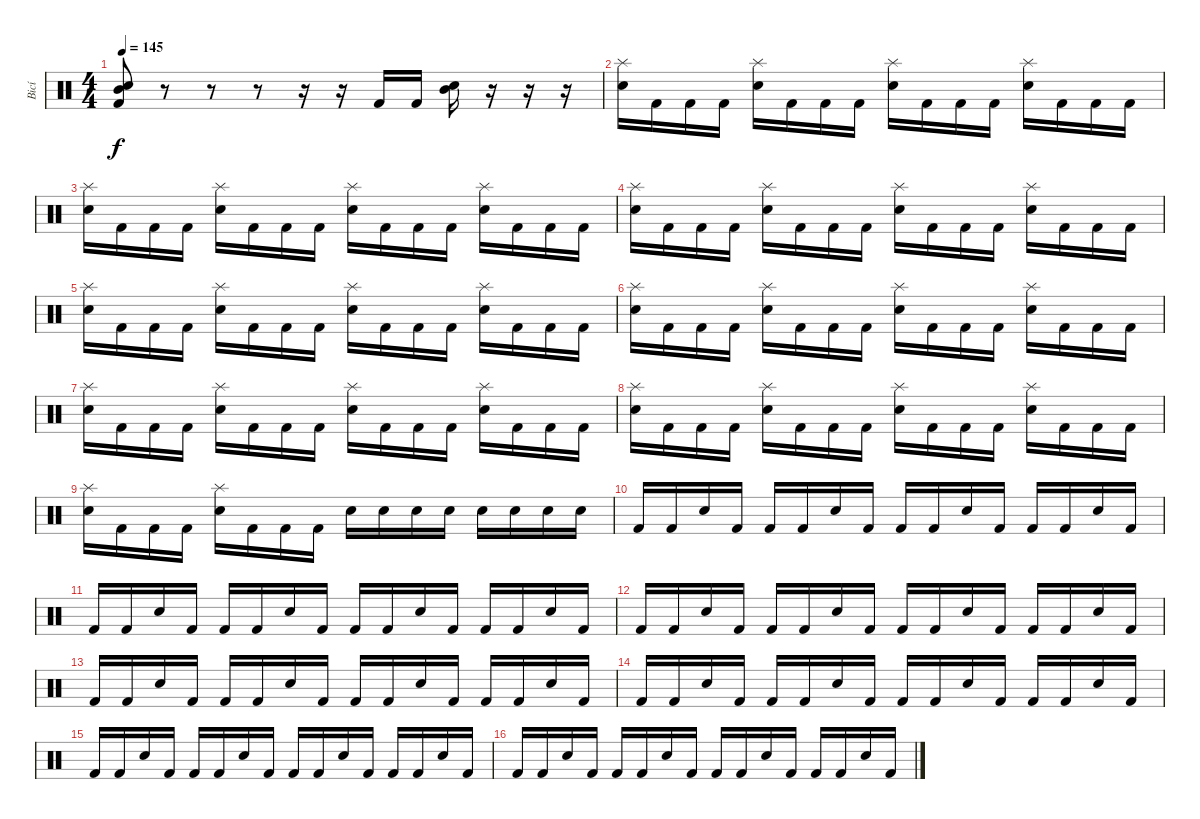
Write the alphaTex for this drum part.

\track ("Bicí" "Bicí") {instrument percussion}
\staff {score}
\articulation defaults
\ts (4 4)
\tempo 145
\clef neutral
\ks c
("Kick (hit) 2" "Electric Snare (hit)" "Mid Tom (hit)").8{dy f} r.8 r.8 r.8 r.16 r.16 "Kick (hit) 2".16 "Kick (hit) 2".16 ("Electric Snare (hit)" "Mid Tom (hit)").16 r.16 r.16 r.16 |
("Electric Snare (hit)" "Splash (hit)").16 "Kick (hit) 2".16 "Kick (hit) 2".16 "Kick (hit) 2".16 ("Electric Snare (hit)" "Splash (hit)").16 "Kick (hit) 2".16 "Kick (hit) 2".16 "Kick (hit) 2".16 ("Electric Snare (hit)" "Splash (hit)").16 "Kick (hit) 2".16 "Kick (hit) 2".16 "Kick (hit) 2".16 ("Electric Snare (hit)" "Splash (hit)").16 "Kick (hit) 2".16 "Kick (hit) 2".16 "Kick (hit) 2".16 |
("Electric Snare (hit)" "Splash (hit)").16 "Kick (hit) 2".16 "Kick (hit) 2".16 "Kick (hit) 2".16 ("Electric Snare (hit)" "Splash (hit)").16 "Kick (hit) 2".16 "Kick (hit) 2".16 "Kick (hit) 2".16 ("Electric Snare (hit)" "Splash (hit)").16 "Kick (hit) 2".16 "Kick (hit) 2".16 "Kick (hit) 2".16 ("Electric Snare (hit)" "Splash (hit)").16 "Kick (hit) 2".16 "Kick (hit) 2".16 "Kick (hit) 2".16 |
("Electric Snare (hit)" "Splash (hit)").16 "Kick (hit) 2".16 "Kick (hit) 2".16 "Kick (hit) 2".16 ("Electric Snare (hit)" "Splash (hit)").16 "Kick (hit) 2".16 "Kick (hit) 2".16 "Kick (hit) 2".16 ("Electric Snare (hit)" "Splash (hit)").16 "Kick (hit) 2".16 "Kick (hit) 2".16 "Kick (hit) 2".16 ("Electric Snare (hit)" "Splash (hit)").16 "Kick (hit) 2".16 "Kick (hit) 2".16 "Kick (hit) 2".16 |
("Electric Snare (hit)" "Splash (hit)").16 "Kick (hit) 2".16 "Kick (hit) 2".16 "Kick (hit) 2".16 ("Electric Snare (hit)" "Splash (hit)").16 "Kick (hit) 2".16 "Kick (hit) 2".16 "Kick (hit) 2".16 ("Electric Snare (hit)" "Splash (hit)").16 "Kick (hit) 2".16 "Kick (hit) 2".16 "Kick (hit) 2".16 ("Electric Snare (hit)" "Splash (hit)").16 "Kick (hit) 2".16 "Kick (hit) 2".16 "Kick (hit) 2".16 |
("Electric Snare (hit)" "Splash (hit)").16 "Kick (hit) 2".16 "Kick (hit) 2".16 "Kick (hit) 2".16 ("Electric Snare (hit)" "Splash (hit)").16 "Kick (hit) 2".16 "Kick (hit) 2".16 "Kick (hit) 2".16 ("Electric Snare (hit)" "Splash (hit)").16 "Kick (hit) 2".16 "Kick (hit) 2".16 "Kick (hit) 2".16 ("Electric Snare (hit)" "Splash (hit)").16 "Kick (hit) 2".16 "Kick (hit) 2".16 "Kick (hit) 2".16 |
("Electric Snare (hit)" "Splash (hit)").16 "Kick (hit) 2".16 "Kick (hit) 2".16 "Kick (hit) 2".16 ("Electric Snare (hit)" "Splash (hit)").16 "Kick (hit) 2".16 "Kick (hit) 2".16 "Kick (hit) 2".16 ("Electric Snare (hit)" "Splash (hit)").16 "Kick (hit) 2".16 "Kick (hit) 2".16 "Kick (hit) 2".16 ("Electric Snare (hit)" "Splash (hit)").16 "Kick (hit) 2".16 "Kick (hit) 2".16 "Kick (hit) 2".16 |
("Electric Snare (hit)" "Splash (hit)").16 "Kick (hit) 2".16 "Kick (hit) 2".16 "Kick (hit) 2".16 ("Electric Snare (hit)" "Splash (hit)").16 "Kick (hit) 2".16 "Kick (hit) 2".16 "Kick (hit) 2".16 ("Electric Snare (hit)" "Splash (hit)").16 "Kick (hit) 2".16 "Kick (hit) 2".16 "Kick (hit) 2".16 ("Electric Snare (hit)" "Splash (hit)").16 "Kick (hit) 2".16 "Kick (hit) 2".16 "Kick (hit) 2".16 |
("Electric Snare (hit)" "Splash (hit)").16 "Kick (hit) 2".16 "Kick (hit) 2".16 "Kick (hit) 2".16 ("Electric Snare (hit)" "Splash (hit)").16 "Kick (hit) 2".16 "Kick (hit) 2".16 "Kick (hit) 2".16 "Electric Snare (hit)".16 "Electric Snare (hit)".16 "Electric Snare (hit)".16 "Electric Snare (hit)".16 "Electric Snare (hit)".16 "Electric Snare (hit)".16 "Electric Snare (hit)".16 "Electric Snare (hit)".16 |
"Kick (hit) 2".16 "Kick (hit) 2".16 "Electric Snare (hit)".16 "Kick (hit) 2".16 "Kick (hit) 2".16 "Kick (hit) 2".16 "Electric Snare (hit)".16 "Kick (hit) 2".16 "Kick (hit) 2".16 "Kick (hit) 2".16 "Electric Snare (hit)".16 "Kick (hit) 2".16 "Kick (hit) 2".16 "Kick (hit) 2".16 "Electric Snare (hit)".16 "Kick (hit) 2".16 |
"Kick (hit) 2".16 "Kick (hit) 2".16 "Electric Snare (hit)".16 "Kick (hit) 2".16 "Kick (hit) 2".16 "Kick (hit) 2".16 "Electric Snare (hit)".16 "Kick (hit) 2".16 "Kick (hit) 2".16 "Kick (hit) 2".16 "Electric Snare (hit)".16 "Kick (hit) 2".16 "Kick (hit) 2".16 "Kick (hit) 2".16 "Electric Snare (hit)".16 "Kick (hit) 2".16 |
"Kick (hit) 2".16 "Kick (hit) 2".16 "Electric Snare (hit)".16 "Kick (hit) 2".16 "Kick (hit) 2".16 "Kick (hit) 2".16 "Electric Snare (hit)".16 "Kick (hit) 2".16 "Kick (hit) 2".16 "Kick (hit) 2".16 "Electric Snare (hit)".16 "Kick (hit) 2".16 "Kick (hit) 2".16 "Kick (hit) 2".16 "Electric Snare (hit)".16 "Kick (hit) 2".16 |
"Kick (hit) 2".16 "Kick (hit) 2".16 "Electric Snare (hit)".16 "Kick (hit) 2".16 "Kick (hit) 2".16 "Kick (hit) 2".16 "Electric Snare (hit)".16 "Kick (hit) 2".16 "Kick (hit) 2".16 "Kick (hit) 2".16 "Electric Snare (hit)".16 "Kick (hit) 2".16 "Kick (hit) 2".16 "Kick (hit) 2".16 "Electric Snare (hit)".16 "Kick (hit) 2".16 |
"Kick (hit) 2".16 "Kick (hit) 2".16 "Electric Snare (hit)".16 "Kick (hit) 2".16 "Kick (hit) 2".16 "Kick (hit) 2".16 "Electric Snare (hit)".16 "Kick (hit) 2".16 "Kick (hit) 2".16 "Kick (hit) 2".16 "Electric Snare (hit)".16 "Kick (hit) 2".16 "Kick (hit) 2".16 "Kick (hit) 2".16 "Electric Snare (hit)".16 "Kick (hit) 2".16 |
"Kick (hit) 2".16 "Kick (hit) 2".16 "Electric Snare (hit)".16 "Kick (hit) 2".16 "Kick (hit) 2".16 "Kick (hit) 2".16 "Electric Snare (hit)".16 "Kick (hit) 2".16 "Kick (hit) 2".16 "Kick (hit) 2".16 "Electric Snare (hit)".16 "Kick (hit) 2".16 "Kick (hit) 2".16 "Kick (hit) 2".16 "Electric Snare (hit)".16 "Kick (hit) 2".16 |
"Kick (hit) 2".16 "Kick (hit) 2".16 "Electric Snare (hit)".16 "Kick (hit) 2".16 "Kick (hit) 2".16 "Kick (hit) 2".16 "Electric Snare (hit)".16 "Kick (hit) 2".16 "Kick (hit) 2".16 "Kick (hit) 2".16 "Electric Snare (hit)".16 "Kick (hit) 2".16 "Kick (hit) 2".16 "Kick (hit) 2".16 "Electric Snare (hit)".16 "Kick (hit) 2".16
